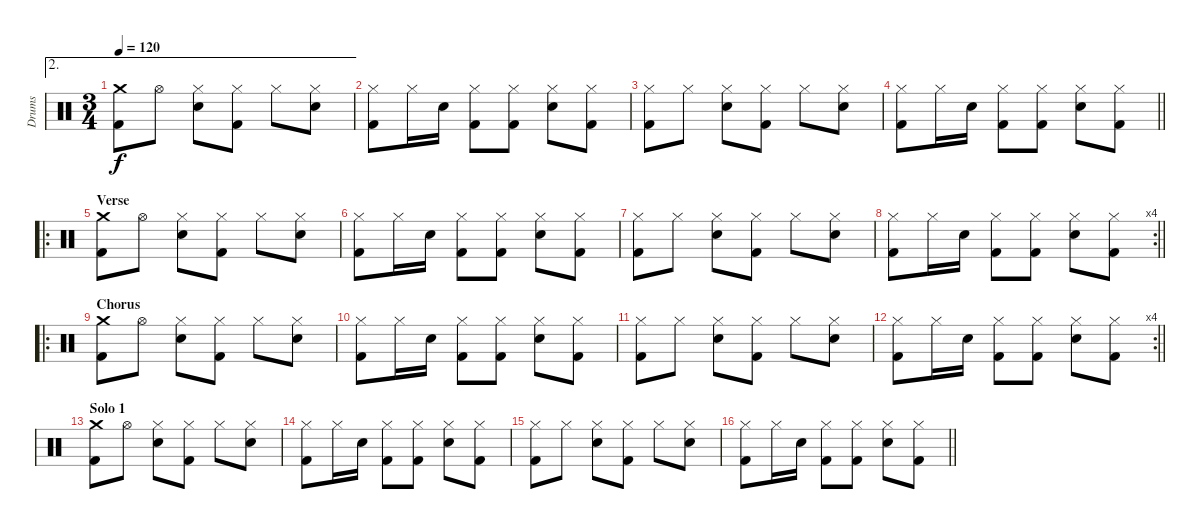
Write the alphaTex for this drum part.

\track ("Drums" "Drums") {instrument percussion}
\staff {score}
\articulation defaults
\ae 2
\ts (3 4)
\tempo 120
\clef neutral
\ks c
("Kick (hit) 2" "Crash medium (hit)").8{dy f} "Hi-Hat (open)".8 ("Electric Snare (hit)" "Hi-Hat (closed)").8 ("Kick (hit) 2" "Hi-Hat (closed)").8 "Hi-Hat (closed)".8 ("Electric Snare (hit)" "Hi-Hat (closed)").8 |
("Kick (hit) 2" "Hi-Hat (closed)").8 "Hi-Hat (closed)".16 "Electric Snare (hit)".16 ("Kick (hit) 2" "Hi-Hat (closed)").8 ("Kick (hit) 2" "Hi-Hat (closed)").8 ("Electric Snare (hit)" "Hi-Hat (closed)").8 ("Kick (hit) 2" "Hi-Hat (closed)").8 |
("Kick (hit) 2" "Hi-Hat (closed)").8 "Hi-Hat (closed)".8 ("Electric Snare (hit)" "Hi-Hat (closed)").8 ("Kick (hit) 2" "Hi-Hat (closed)").8 "Hi-Hat (closed)".8 ("Electric Snare (hit)" "Hi-Hat (closed)").8 |
\barLineRight lightlight
("Kick (hit) 2" "Hi-Hat (closed)").8 "Hi-Hat (closed)".16 "Electric Snare (hit)".16 ("Kick (hit) 2" "Hi-Hat (closed)").8 ("Kick (hit) 2" "Hi-Hat (closed)").8 ("Electric Snare (hit)" "Hi-Hat (closed)").8 ("Kick (hit) 2" "Hi-Hat (closed)").8 |
\ro
\section ("" "Verse")
("Kick (hit) 2" "Crash medium (hit)").8 "Hi-Hat (open)".8 ("Electric Snare (hit)" "Hi-Hat (closed)").8 ("Kick (hit) 2" "Hi-Hat (closed)").8 "Hi-Hat (closed)".8 ("Electric Snare (hit)" "Hi-Hat (closed)").8 |
("Kick (hit) 2" "Hi-Hat (closed)").8 "Hi-Hat (closed)".16 "Electric Snare (hit)".16 ("Kick (hit) 2" "Hi-Hat (closed)").8 ("Kick (hit) 2" "Hi-Hat (closed)").8 ("Electric Snare (hit)" "Hi-Hat (closed)").8 ("Kick (hit) 2" "Hi-Hat (closed)").8 |
("Kick (hit) 2" "Hi-Hat (closed)").8 "Hi-Hat (closed)".8 ("Electric Snare (hit)" "Hi-Hat (closed)").8 ("Kick (hit) 2" "Hi-Hat (closed)").8 "Hi-Hat (closed)".8 ("Electric Snare (hit)" "Hi-Hat (closed)").8 |
\rc 4
\barLineRight lightlight
("Kick (hit) 2" "Hi-Hat (closed)").8 "Hi-Hat (closed)".16 "Electric Snare (hit)".16 ("Kick (hit) 2" "Hi-Hat (closed)").8 ("Kick (hit) 2" "Hi-Hat (closed)").8 ("Electric Snare (hit)" "Hi-Hat (closed)").8 ("Kick (hit) 2" "Hi-Hat (closed)").8 |
\ro
\section ("" "Chorus")
("Kick (hit) 2" "Crash medium (hit)").8 "Hi-Hat (open)".8 ("Electric Snare (hit)" "Hi-Hat (closed)").8 ("Kick (hit) 2" "Hi-Hat (closed)").8 "Hi-Hat (closed)".8 ("Electric Snare (hit)" "Hi-Hat (closed)").8 |
("Kick (hit) 2" "Hi-Hat (closed)").8 "Hi-Hat (closed)".16 "Electric Snare (hit)".16 ("Kick (hit) 2" "Hi-Hat (closed)").8 ("Kick (hit) 2" "Hi-Hat (closed)").8 ("Electric Snare (hit)" "Hi-Hat (closed)").8 ("Kick (hit) 2" "Hi-Hat (closed)").8 |
("Kick (hit) 2" "Hi-Hat (closed)").8 "Hi-Hat (closed)".8 ("Electric Snare (hit)" "Hi-Hat (closed)").8 ("Kick (hit) 2" "Hi-Hat (closed)").8 "Hi-Hat (closed)".8 ("Electric Snare (hit)" "Hi-Hat (closed)").8 |
\rc 4
\barLineRight lightlight
("Kick (hit) 2" "Hi-Hat (closed)").8 "Hi-Hat (closed)".16 "Electric Snare (hit)".16 ("Kick (hit) 2" "Hi-Hat (closed)").8 ("Kick (hit) 2" "Hi-Hat (closed)").8 ("Electric Snare (hit)" "Hi-Hat (closed)").8 ("Kick (hit) 2" "Hi-Hat (closed)").8 |
\section ("" "Solo 1")
("Kick (hit) 2" "Crash medium (hit)").8 "Hi-Hat (open)".8 ("Electric Snare (hit)" "Hi-Hat (closed)").8 ("Kick (hit) 2" "Hi-Hat (closed)").8 "Hi-Hat (closed)".8 ("Electric Snare (hit)" "Hi-Hat (closed)").8 |
("Kick (hit) 2" "Hi-Hat (closed)").8 "Hi-Hat (closed)".16 "Electric Snare (hit)".16 ("Kick (hit) 2" "Hi-Hat (closed)").8 ("Kick (hit) 2" "Hi-Hat (closed)").8 ("Electric Snare (hit)" "Hi-Hat (closed)").8 ("Kick (hit) 2" "Hi-Hat (closed)").8 |
("Kick (hit) 2" "Hi-Hat (closed)").8 "Hi-Hat (closed)".8 ("Electric Snare (hit)" "Hi-Hat (closed)").8 ("Kick (hit) 2" "Hi-Hat (closed)").8 "Hi-Hat (closed)".8 ("Electric Snare (hit)" "Hi-Hat (closed)").8 |
\barLineRight lightlight
("Kick (hit) 2" "Hi-Hat (closed)").8 "Hi-Hat (closed)".16 "Electric Snare (hit)".16 ("Kick (hit) 2" "Hi-Hat (closed)").8 ("Kick (hit) 2" "Hi-Hat (closed)").8 ("Electric Snare (hit)" "Hi-Hat (closed)").8 ("Kick (hit) 2" "Hi-Hat (closed)").8
